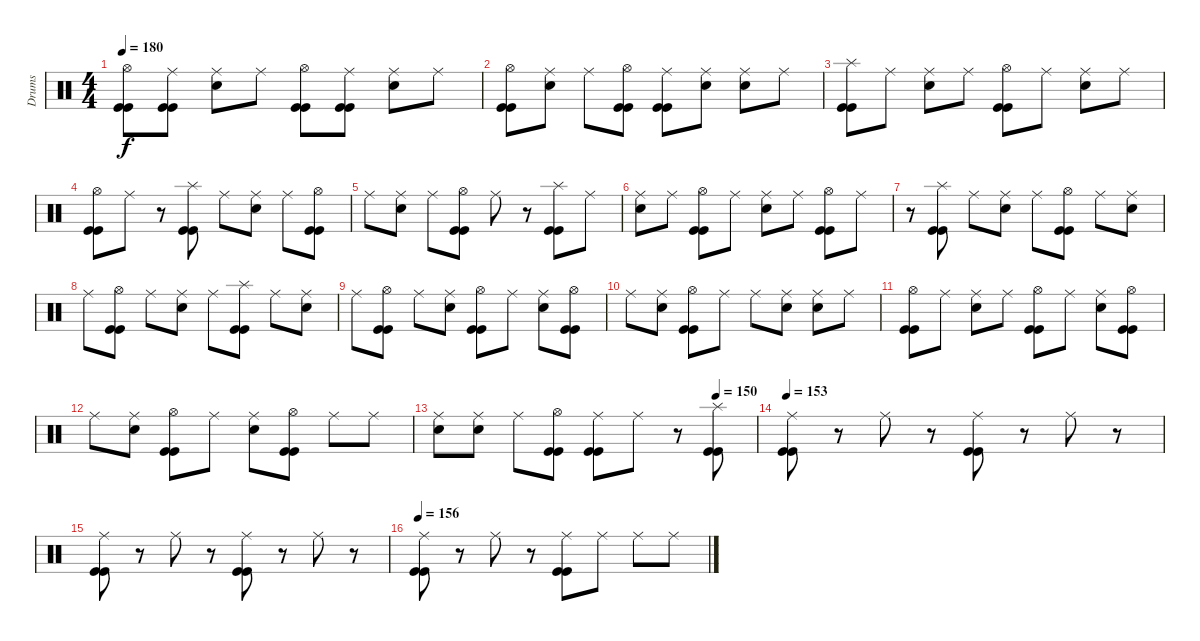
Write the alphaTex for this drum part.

\track ("Drums" "Drums") {instrument percussion}
\staff {score}
\articulation defaults
\ts (4 4)
\tempo 180
\clef neutral
\ks c
("Hi-Hat (open)" "Kick (hit)" "Kick (hit)").8{dy f} ("Ride (middle)" "Kick (hit)" "Kick (hit)").8 ("Ride (middle)" "Snare (hit) 2").8 "Ride (middle)".8 ("Hi-Hat (open)" "Kick (hit)" "Kick (hit)").8 ("Ride (middle)" "Kick (hit)" "Kick (hit)").8 ("Ride (middle)" "Snare (hit) 2").8 "Ride (middle)".8 |
("Hi-Hat (open)" "Kick (hit)" "Kick (hit)").8 ("Ride (middle)" "Snare (hit) 2").8 "Ride (middle)".8 ("Hi-Hat (open)" "Kick (hit)" "Kick (hit)").8 ("Ride (middle)" "Kick (hit)" "Kick (hit)").8 ("Ride (middle)" "Snare (hit) 2").8 ("Ride (middle)" "Snare (hit) 2").8 "Ride (middle)".8 |
("Splash (hit)" "Kick (hit)" "Kick (hit)").8 "Ride (middle)".8 ("Ride (middle)" "Snare (hit) 2").8 "Ride (middle)".8 ("Hi-Hat (open)" "Kick (hit)" "Kick (hit)").8 "Ride (middle)".8 ("Ride (middle)" "Snare (hit) 2").8 "Ride (middle)".8 |
("Hi-Hat (open)" "Kick (hit)" "Kick (hit)").8 "Ride (middle)".8 r.8 ("Splash (hit)" "Kick (hit)" "Kick (hit)").8 "Ride (middle)".8 ("Ride (middle)" "Snare (hit) 2").8 "Ride (middle)".8 ("Hi-Hat (open)" "Kick (hit)" "Kick (hit)").8 |
"Ride (middle)".8 ("Ride (middle)" "Snare (hit) 2").8 "Ride (middle)".8 ("Hi-Hat (open)" "Kick (hit)" "Kick (hit)").8 "Ride (middle)".8 r.8 ("Splash (hit)" "Kick (hit)" "Kick (hit)").8 "Ride (middle)".8 |
("Ride (middle)" "Snare (hit) 2").8 "Ride (middle)".8 ("Hi-Hat (open)" "Kick (hit)" "Kick (hit)").8 "Ride (middle)".8 ("Ride (middle)" "Snare (hit) 2").8 "Ride (middle)".8 ("Hi-Hat (open)" "Kick (hit)" "Kick (hit)").8 "Ride (middle)".8 |
r.8 ("Splash (hit)" "Kick (hit)" "Kick (hit)").8 "Ride (middle)".8 ("Ride (middle)" "Snare (hit) 2").8 "Ride (middle)".8 ("Hi-Hat (open)" "Kick (hit)" "Kick (hit)").8 "Ride (middle)".8 ("Ride (middle)" "Snare (hit) 2").8 |
"Ride (middle)".8 ("Hi-Hat (open)" "Kick (hit)" "Kick (hit)").8 "Ride (middle)".8 ("Ride (middle)" "Snare (hit) 2").8 "Ride (middle)".8 ("Splash (hit)" "Kick (hit)" "Kick (hit)").8 "Ride (middle)".8 ("Ride (middle)" "Snare (hit) 2").8 |
"Ride (middle)".8 ("Hi-Hat (open)" "Kick (hit)" "Kick (hit)").8 "Ride (middle)".8 ("Ride (middle)" "Snare (hit) 2").8 ("Hi-Hat (open)" "Kick (hit)" "Kick (hit)").8 "Ride (middle)".8 ("Ride (middle)" "Snare (hit) 2").8 ("Hi-Hat (open)" "Kick (hit)" "Kick (hit)").8 |
"Ride (middle)".8 ("Ride (middle)" "Snare (hit) 2").8 ("Hi-Hat (open)" "Kick (hit)" "Kick (hit)").8 "Ride (middle)".8 "Ride (middle)".8 ("Ride (middle)" "Snare (hit) 2").8 ("Ride (middle)" "Snare (hit) 2").8 "Ride (middle)".8 |
("Hi-Hat (open)" "Kick (hit)" "Kick (hit)").8 "Ride (middle)".8 ("Ride (middle)" "Snare (hit) 2").8 "Ride (middle)".8 ("Hi-Hat (open)" "Kick (hit)" "Kick (hit)").8 "Ride (middle)".8 ("Ride (middle)" "Snare (hit) 2").8 ("Hi-Hat (open)" "Kick (hit)" "Kick (hit)").8 |
"Ride (middle)".8 ("Ride (middle)" "Snare (hit) 2").8 ("Hi-Hat (open)" "Kick (hit)" "Kick (hit)").8 "Ride (middle)".8 ("Ride (middle)" "Snare (hit) 2").8 ("Hi-Hat (open)" "Kick (hit)" "Kick (hit)").8 "Ride (middle)".8 "Ride (middle)".8 |
\tempo (150 0.875)
("Ride (middle)" "Snare (hit) 2").8 ("Ride (middle)" "Snare (hit) 2").8 "Ride (middle)".8 ("Hi-Hat (open)" "Kick (hit)" "Kick (hit)").8 ("Ride (middle)" "Kick (hit)" "Kick (hit)").8 "Ride (middle)".8 r.8 ("Splash (hit)" "Kick (hit)" "Kick (hit)").8 |
\tempo 153
("Ride (middle)" "Kick (hit)" "Kick (hit)").8 r.8 "Ride (middle)".8 r.8 ("Ride (middle)" "Kick (hit)" "Kick (hit)").8 r.8 "Ride (middle)".8 r.8 |
("Ride (middle)" "Kick (hit)" "Kick (hit)").8 r.8 "Ride (middle)".8 r.8 ("Ride (middle)" "Kick (hit)" "Kick (hit)").8 r.8 "Ride (middle)".8 r.8 |
\tempo 156
("Ride (middle)" "Kick (hit)" "Kick (hit)").8 r.8 "Ride (middle)".8 r.8 ("Ride (middle)" "Kick (hit)" "Kick (hit)").8 "Ride (middle)".8 "Ride (middle)".8 "Ride (middle)".8
